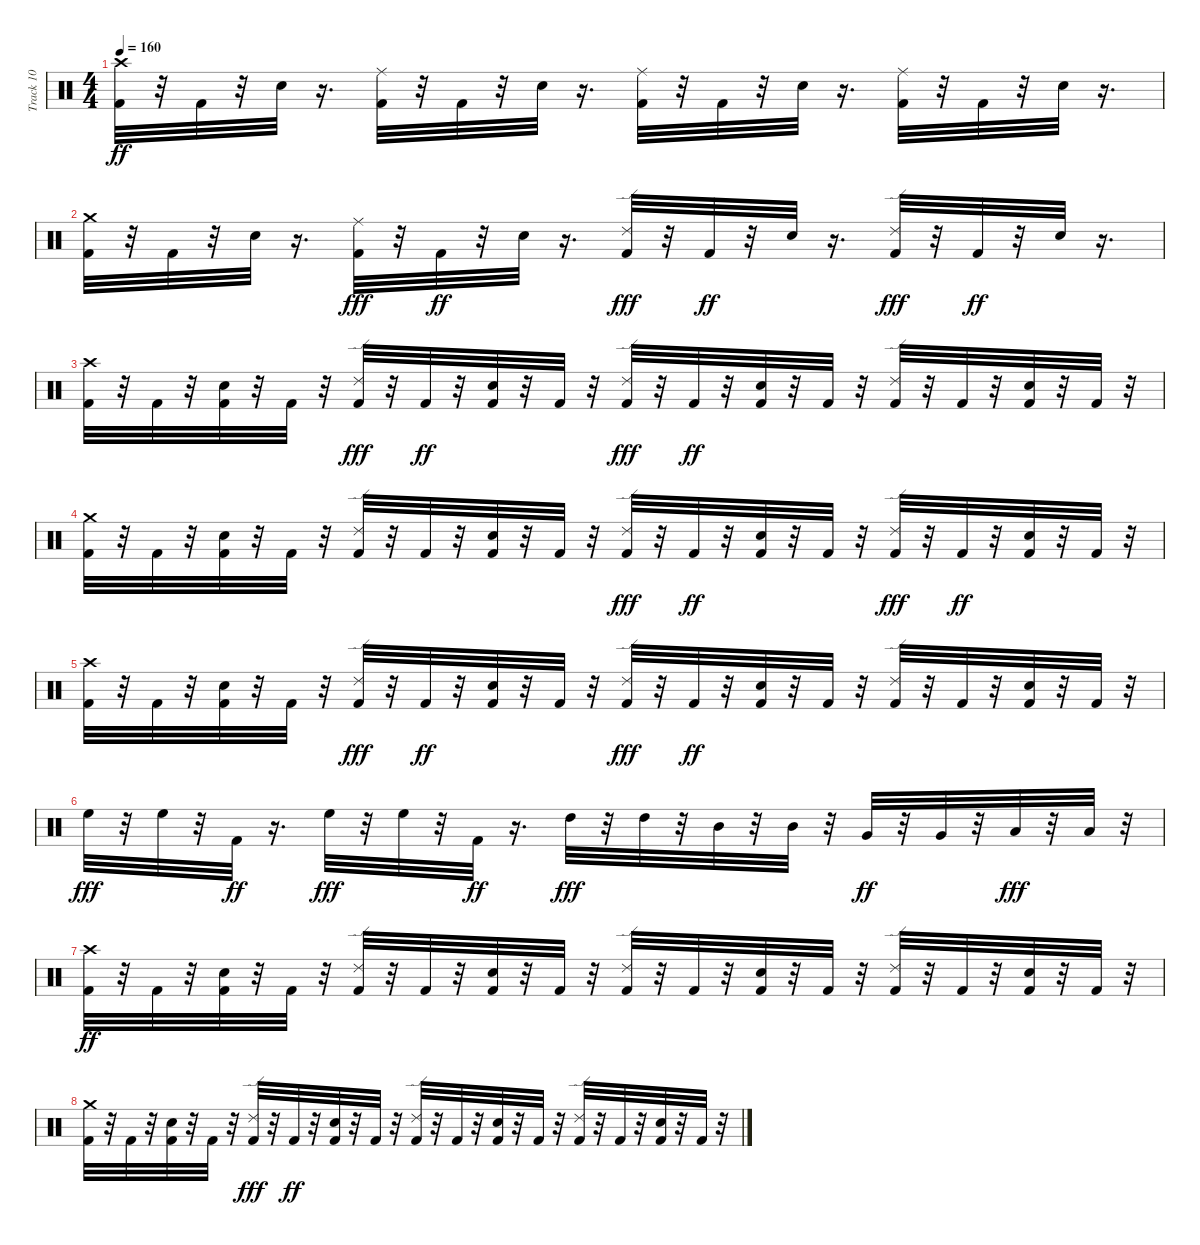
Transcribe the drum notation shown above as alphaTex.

\track ("Track 10" "Track 10") {instrument percussion}
\staff {score}
\articulation defaults
\ts (4 4)
\tempo 160
\clef neutral
\ks c
("Crash high (hit)" "Kick (hit) 2").32{dy ff} r.32 "Kick (hit) 2".32 r.32 "Electric Snare (hit)".32 r.16{d} ("Ride (middle)" "Kick (hit) 2").32 r.32 "Kick (hit) 2".32 r.32 "Electric Snare (hit)".32 r.16{d} ("Ride (middle)" "Kick (hit) 2").32 r.32 "Kick (hit) 2".32 r.32 "Electric Snare (hit)".32 r.16{d} ("Ride (middle)" "Kick (hit) 2").32 r.32 "Kick (hit) 2".32 r.32 "Electric Snare (hit)".32 r.16{d} |
("Crash medium (hit)" "Kick (hit) 2").32 r.32 "Kick (hit) 2".32 r.32 "Electric Snare (hit)".32 r.16{d} ("Kick (hit) 2" "Ride (middle)").32{dy fff} r.32 "Kick (hit) 2".32{dy ff} r.32 "Electric Snare (hit)".32 r.16{d} ("Kick (hit) 2" "Ride (edge) 2").32{dy fff} r.32 "Kick (hit) 2".32{dy ff} r.32 "Electric Snare (hit)".32 r.16{d} ("Kick (hit) 2" "Ride (edge) 2").32{dy fff} r.32 "Kick (hit) 2".32{dy ff} r.32 "Electric Snare (hit)".32 r.16{d} |
("Kick (hit) 2" "Crash high (hit)").32 r.32 "Kick (hit) 2".32 r.32 ("Electric Snare (hit)" "Kick (hit) 2").32 r.32 "Kick (hit) 2".32 r.32 ("Kick (hit) 2" "Ride (edge) 2").32{dy fff} r.32 "Kick (hit) 2".32{dy ff} r.32 ("Kick (hit) 2" "Electric Snare (hit)").32 r.32 "Kick (hit) 2".32 r.32 ("Kick (hit) 2" "Ride (edge) 2").32{dy fff} r.32 "Kick (hit) 2".32{dy ff} r.32 ("Kick (hit) 2" "Electric Snare (hit)").32 r.32 "Kick (hit) 2".32 r.32 ("Ride (edge) 2" "Kick (hit) 2").32 r.32 "Kick (hit) 2".32 r.32 ("Electric Snare (hit)" "Kick (hit) 2").32 r.32 "Kick (hit) 2".32 r.32 |
("Crash medium (hit)" "Kick (hit) 2").32 r.32 "Kick (hit) 2".32 r.32 ("Electric Snare (hit)" "Kick (hit) 2").32 r.32 "Kick (hit) 2".32 r.32 ("Ride (edge) 2" "Kick (hit) 2").32 r.32 "Kick (hit) 2".32 r.32 ("Electric Snare (hit)" "Kick (hit) 2").32 r.32 "Kick (hit) 2".32 r.32 ("Kick (hit) 2" "Ride (edge) 2").32{dy fff} r.32 "Kick (hit) 2".32{dy ff} r.32 ("Kick (hit) 2" "Electric Snare (hit)").32 r.32 "Kick (hit) 2".32 r.32 ("Kick (hit) 2" "Ride (edge) 2").32{dy fff} r.32 "Kick (hit) 2".32{dy ff} r.32 ("Kick (hit) 2" "Electric Snare (hit)").32 r.32 "Kick (hit) 2".32 r.32 |
("Crash high (hit)" "Kick (hit) 2").32 r.32 "Kick (hit) 2".32 r.32 ("Electric Snare (hit)" "Kick (hit) 2").32 r.32 "Kick (hit) 2".32 r.32 ("Kick (hit) 2" "Ride (edge) 2").32{dy fff} r.32 "Kick (hit) 2".32{dy ff} r.32 ("Electric Snare (hit)" "Kick (hit) 2").32 r.32 "Kick (hit) 2".32 r.32 ("Kick (hit) 2" "Ride (edge) 2").32{dy fff} r.32 "Kick (hit) 2".32{dy ff} r.32 ("Kick (hit) 2" "Electric Snare (hit)").32 r.32 "Kick (hit) 2".32 r.32 ("Ride (edge) 2" "Kick (hit) 2").32 r.32 "Kick (hit) 2".32 r.32 ("Electric Snare (hit)" "Kick (hit) 2").32 r.32 "Kick (hit) 2".32 r.32 |
"High Floor Tom (hit)".32{dy fff} r.32 "High Floor Tom (hit)".32 r.32 "Kick (hit) 2".32{dy ff} r.16{d} "High Floor Tom (hit)".32{dy fff} r.32 "High Floor Tom (hit)".32 r.32 "Kick (hit) 2".32{dy ff} r.16{d} "High Tom (hit)".32{dy fff} r.32 "High Tom (hit)".32 r.32 "Mid Tom (hit)".32 r.32 "Mid Tom (hit)".32 r.32 "Very Low Tom (hit)".32{dy ff} r.32 "Very Low Tom (hit)".32 r.32 "Low Tom (hit)".32{dy fff} r.32 "Low Tom (hit)".32 r.32 |
("Crash high (hit)" "Kick (hit) 2").32{dy ff} r.32 "Kick (hit) 2".32 r.32 ("Kick (hit) 2" "Electric Snare (hit)").32 r.32 "Kick (hit) 2".32 r.32 ("Ride (edge) 2" "Kick (hit) 2").32 r.32 "Kick (hit) 2".32 r.32 ("Electric Snare (hit)" "Kick (hit) 2").32 r.32 "Kick (hit) 2".32 r.32 ("Ride (edge) 2" "Kick (hit) 2").32 r.32 "Kick (hit) 2".32 r.32 ("Kick (hit) 2" "Electric Snare (hit)").32 r.32 "Kick (hit) 2".32 r.32 ("Ride (edge) 2" "Kick (hit) 2").32 r.32 "Kick (hit) 2".32 r.32 ("Electric Snare (hit)" "Kick (hit) 2").32 r.32 "Kick (hit) 2".32 r.32 |
("Kick (hit) 2" "Crash medium (hit)").32 r.32 "Kick (hit) 2".32 r.32 ("Electric Snare (hit)" "Kick (hit) 2").32 r.32 "Kick (hit) 2".32 r.32 ("Kick (hit) 2" "Ride (edge) 2").32{dy fff} r.32 "Kick (hit) 2".32{dy ff} r.32 ("Kick (hit) 2" "Electric Snare (hit)").32 r.32 "Kick (hit) 2".32 r.32 ("Ride (edge) 2" "Kick (hit) 2").32 r.32 "Kick (hit) 2".32 r.32 ("Electric Snare (hit)" "Kick (hit) 2").32 r.32 "Kick (hit) 2".32 r.32 ("Ride (edge) 2" "Kick (hit) 2").32 r.32 "Kick (hit) 2".32 r.32 ("Electric Snare (hit)" "Kick (hit) 2").32 r.32 "Kick (hit) 2".32 r.32
